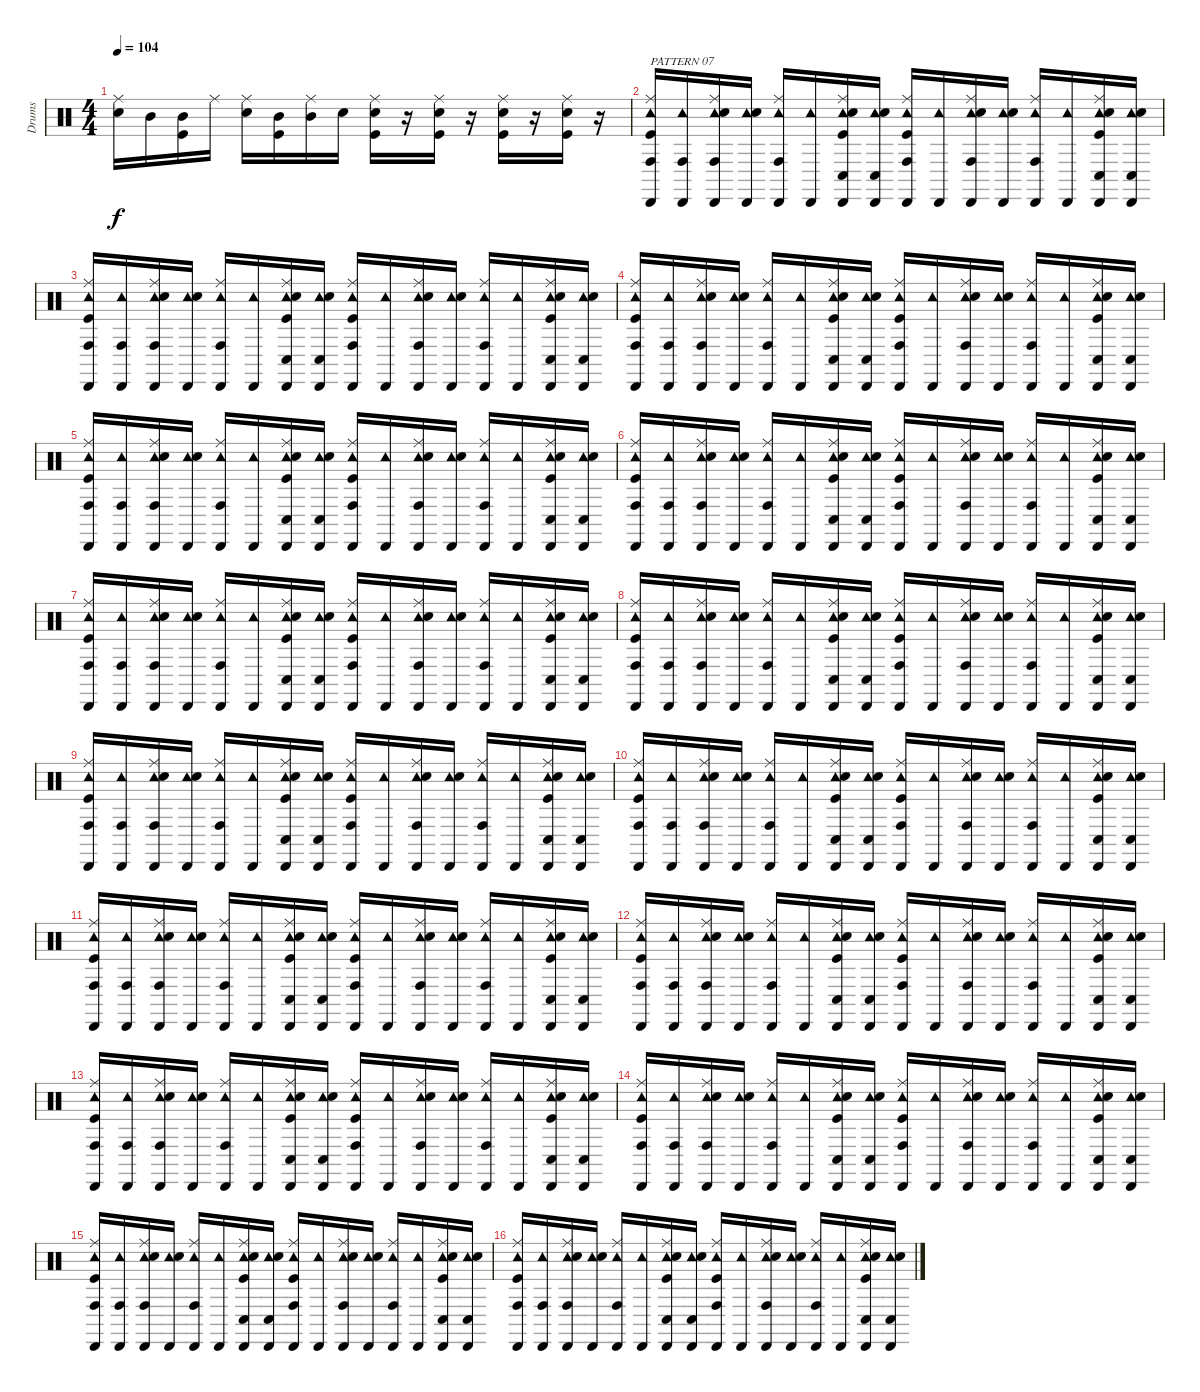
\track ("Drums" "Drums") {instrument percussion}
\staff {score}
\articulation defaults
\ts (4 4)
\tempo 104
\clef neutral
\ks c
("Ride (middle)" "Electric Snare (hit)").16{dy f} "Mid Tom (hit)".16 ("Mid Tom (hit)" "Kick (hit)").16 "Ride (middle)".16 ("Ride (middle)" "Electric Snare (hit)").16 ("Mid Tom (hit)" "Kick (hit)").16 ("Ride (middle)" "Mid Tom (hit)").16 "Electric Snare (hit)".16 ("Ride (middle)" "Electric Snare (hit)" "Kick (hit)").16 r.16 ("Ride (middle)" "Electric Snare (hit)" "Kick (hit)").16 r.16 ("Ride (middle)" "Electric Snare (hit)" "Kick (hit)").16 r.16 ("Ride (middle)" "Electric Snare (hit)" "Kick (hit)").16 r.16 |
("Cabasa (hit)" "Conga high (hit)" "Tambourine (hit)" "Ride (middle)" "Kick (hit)").16{txt "PATTERN 07"} ("Cabasa (hit)" "Conga high (hit)" "Tambourine (hit)").16 ("Cabasa (hit)" "Conga high (hit)" "Tambourine (hit)" "Ride (middle)" "Electric Snare (hit)").16 ("Cabasa (hit)" "Tambourine (hit)" "Electric Snare (hit)").16 ("Cabasa (hit)" "Conga high (hit)" "Tambourine (hit)" "Ride (middle)").16 ("Cabasa (hit)" "Tambourine (hit)").16 ("Cabasa (hit)" "Conga low (hit)" "Tambourine (hit)" "Ride (middle)" "Electric Snare (hit)" "Kick (hit)").16 ("Cabasa (hit)" "Conga low (hit)" "Tambourine (hit)" "Electric Snare (hit)").16 ("Cabasa (hit)" "Conga high (hit)" "Tambourine (hit)" "Ride (middle)" "Kick (hit)").16 ("Cabasa (hit)" "Tambourine (hit)").16 ("Cabasa (hit)" "Conga high (hit)" "Tambourine (hit)" "Ride (middle)" "Electric Snare (hit)").16 ("Cabasa (hit)" "Tambourine (hit)" "Electric Snare (hit)").16 ("Cabasa (hit)" "Conga high (hit)" "Tambourine (hit)" "Ride (middle)").16 ("Cabasa (hit)" "Tambourine (hit)").16 ("Cabasa (hit)" "Conga low (hit)" "Tambourine (hit)" "Ride (middle)" "Electric Snare (hit)" "Kick (hit)").16 ("Cabasa (hit)" "Conga low (hit)" "Tambourine (hit)" "Electric Snare (hit)").16 |
("Cabasa (hit)" "Conga high (hit)" "Tambourine (hit)" "Ride (middle)" "Kick (hit)").16 ("Cabasa (hit)" "Conga high (hit)" "Tambourine (hit)").16 ("Cabasa (hit)" "Conga high (hit)" "Tambourine (hit)" "Ride (middle)" "Electric Snare (hit)").16 ("Cabasa (hit)" "Tambourine (hit)" "Electric Snare (hit)").16 ("Cabasa (hit)" "Conga high (hit)" "Tambourine (hit)" "Ride (middle)").16 ("Cabasa (hit)" "Tambourine (hit)").16 ("Cabasa (hit)" "Conga low (hit)" "Tambourine (hit)" "Ride (middle)" "Electric Snare (hit)" "Kick (hit)").16 ("Cabasa (hit)" "Conga low (hit)" "Tambourine (hit)" "Electric Snare (hit)").16 ("Cabasa (hit)" "Conga high (hit)" "Tambourine (hit)" "Ride (middle)" "Kick (hit)").16 ("Cabasa (hit)" "Tambourine (hit)").16 ("Cabasa (hit)" "Conga high (hit)" "Tambourine (hit)" "Ride (middle)" "Electric Snare (hit)").16 ("Cabasa (hit)" "Tambourine (hit)" "Electric Snare (hit)").16 ("Cabasa (hit)" "Conga high (hit)" "Tambourine (hit)" "Ride (middle)").16 ("Cabasa (hit)" "Tambourine (hit)").16 ("Cabasa (hit)" "Conga low (hit)" "Tambourine (hit)" "Ride (middle)" "Electric Snare (hit)" "Kick (hit)").16 ("Cabasa (hit)" "Conga low (hit)" "Tambourine (hit)" "Electric Snare (hit)").16 |
("Cabasa (hit)" "Conga high (hit)" "Tambourine (hit)" "Ride (middle)" "Kick (hit)").16 ("Cabasa (hit)" "Conga high (hit)" "Tambourine (hit)").16 ("Cabasa (hit)" "Conga high (hit)" "Tambourine (hit)" "Ride (middle)" "Electric Snare (hit)").16 ("Cabasa (hit)" "Tambourine (hit)" "Electric Snare (hit)").16 ("Cabasa (hit)" "Conga high (hit)" "Tambourine (hit)" "Ride (middle)").16 ("Cabasa (hit)" "Tambourine (hit)").16 ("Cabasa (hit)" "Conga low (hit)" "Tambourine (hit)" "Ride (middle)" "Electric Snare (hit)" "Kick (hit)").16 ("Cabasa (hit)" "Conga low (hit)" "Tambourine (hit)" "Electric Snare (hit)").16 ("Cabasa (hit)" "Conga high (hit)" "Tambourine (hit)" "Ride (middle)" "Kick (hit)").16 ("Cabasa (hit)" "Tambourine (hit)").16 ("Cabasa (hit)" "Conga high (hit)" "Tambourine (hit)" "Ride (middle)" "Electric Snare (hit)").16 ("Cabasa (hit)" "Tambourine (hit)" "Electric Snare (hit)").16 ("Cabasa (hit)" "Conga high (hit)" "Tambourine (hit)" "Ride (middle)").16 ("Cabasa (hit)" "Tambourine (hit)").16 ("Cabasa (hit)" "Conga low (hit)" "Tambourine (hit)" "Ride (middle)" "Electric Snare (hit)" "Kick (hit)").16 ("Cabasa (hit)" "Conga low (hit)" "Tambourine (hit)" "Electric Snare (hit)").16 |
("Cabasa (hit)" "Conga high (hit)" "Tambourine (hit)" "Ride (middle)" "Kick (hit)").16 ("Cabasa (hit)" "Conga high (hit)" "Tambourine (hit)").16 ("Cabasa (hit)" "Conga high (hit)" "Tambourine (hit)" "Ride (middle)" "Electric Snare (hit)").16 ("Cabasa (hit)" "Tambourine (hit)" "Electric Snare (hit)").16 ("Cabasa (hit)" "Conga high (hit)" "Tambourine (hit)" "Ride (middle)").16 ("Cabasa (hit)" "Tambourine (hit)").16 ("Cabasa (hit)" "Conga low (hit)" "Tambourine (hit)" "Ride (middle)" "Electric Snare (hit)" "Kick (hit)").16 ("Cabasa (hit)" "Conga low (hit)" "Tambourine (hit)" "Electric Snare (hit)").16 ("Cabasa (hit)" "Conga high (hit)" "Tambourine (hit)" "Ride (middle)" "Kick (hit)").16 ("Cabasa (hit)" "Tambourine (hit)").16 ("Cabasa (hit)" "Conga high (hit)" "Tambourine (hit)" "Ride (middle)" "Electric Snare (hit)").16 ("Cabasa (hit)" "Tambourine (hit)" "Electric Snare (hit)").16 ("Cabasa (hit)" "Conga high (hit)" "Tambourine (hit)" "Ride (middle)").16 ("Cabasa (hit)" "Tambourine (hit)").16 ("Cabasa (hit)" "Conga low (hit)" "Tambourine (hit)" "Ride (middle)" "Electric Snare (hit)" "Kick (hit)").16 ("Cabasa (hit)" "Conga low (hit)" "Tambourine (hit)" "Electric Snare (hit)").16 |
("Cabasa (hit)" "Conga high (hit)" "Tambourine (hit)" "Ride (middle)" "Kick (hit)").16 ("Cabasa (hit)" "Conga high (hit)" "Tambourine (hit)").16 ("Cabasa (hit)" "Conga high (hit)" "Tambourine (hit)" "Ride (middle)" "Electric Snare (hit)").16 ("Cabasa (hit)" "Tambourine (hit)" "Electric Snare (hit)").16 ("Cabasa (hit)" "Conga high (hit)" "Tambourine (hit)" "Ride (middle)").16 ("Cabasa (hit)" "Tambourine (hit)").16 ("Cabasa (hit)" "Conga low (hit)" "Tambourine (hit)" "Ride (middle)" "Electric Snare (hit)" "Kick (hit)").16 ("Cabasa (hit)" "Conga low (hit)" "Tambourine (hit)" "Electric Snare (hit)").16 ("Cabasa (hit)" "Conga high (hit)" "Tambourine (hit)" "Ride (middle)" "Kick (hit)").16 ("Cabasa (hit)" "Tambourine (hit)").16 ("Cabasa (hit)" "Conga high (hit)" "Tambourine (hit)" "Ride (middle)" "Electric Snare (hit)").16 ("Cabasa (hit)" "Tambourine (hit)" "Electric Snare (hit)").16 ("Cabasa (hit)" "Conga high (hit)" "Tambourine (hit)" "Ride (middle)").16 ("Cabasa (hit)" "Tambourine (hit)").16 ("Cabasa (hit)" "Conga low (hit)" "Tambourine (hit)" "Ride (middle)" "Electric Snare (hit)" "Kick (hit)").16 ("Cabasa (hit)" "Conga low (hit)" "Tambourine (hit)" "Electric Snare (hit)").16 |
("Cabasa (hit)" "Conga high (hit)" "Tambourine (hit)" "Ride (middle)" "Kick (hit)").16 ("Cabasa (hit)" "Conga high (hit)" "Tambourine (hit)").16 ("Cabasa (hit)" "Conga high (hit)" "Tambourine (hit)" "Ride (middle)" "Electric Snare (hit)").16 ("Cabasa (hit)" "Tambourine (hit)" "Electric Snare (hit)").16 ("Cabasa (hit)" "Conga high (hit)" "Tambourine (hit)" "Ride (middle)").16 ("Cabasa (hit)" "Tambourine (hit)").16 ("Cabasa (hit)" "Conga low (hit)" "Tambourine (hit)" "Ride (middle)" "Electric Snare (hit)" "Kick (hit)").16 ("Cabasa (hit)" "Conga low (hit)" "Tambourine (hit)" "Electric Snare (hit)").16 ("Cabasa (hit)" "Conga high (hit)" "Tambourine (hit)" "Ride (middle)" "Kick (hit)").16 ("Cabasa (hit)" "Tambourine (hit)").16 ("Cabasa (hit)" "Conga high (hit)" "Tambourine (hit)" "Ride (middle)" "Electric Snare (hit)").16 ("Cabasa (hit)" "Tambourine (hit)" "Electric Snare (hit)").16 ("Cabasa (hit)" "Conga high (hit)" "Tambourine (hit)" "Ride (middle)").16 ("Cabasa (hit)" "Tambourine (hit)").16 ("Cabasa (hit)" "Conga low (hit)" "Tambourine (hit)" "Ride (middle)" "Electric Snare (hit)" "Kick (hit)").16 ("Cabasa (hit)" "Conga low (hit)" "Tambourine (hit)" "Electric Snare (hit)").16 |
("Cabasa (hit)" "Conga high (hit)" "Tambourine (hit)" "Ride (middle)" "Kick (hit)").16 ("Cabasa (hit)" "Conga high (hit)" "Tambourine (hit)").16 ("Cabasa (hit)" "Conga high (hit)" "Tambourine (hit)" "Ride (middle)" "Electric Snare (hit)").16 ("Cabasa (hit)" "Tambourine (hit)" "Electric Snare (hit)").16 ("Cabasa (hit)" "Conga high (hit)" "Tambourine (hit)" "Ride (middle)").16 ("Cabasa (hit)" "Tambourine (hit)").16 ("Cabasa (hit)" "Conga low (hit)" "Tambourine (hit)" "Ride (middle)" "Electric Snare (hit)" "Kick (hit)").16 ("Cabasa (hit)" "Conga low (hit)" "Tambourine (hit)" "Electric Snare (hit)").16 ("Cabasa (hit)" "Conga high (hit)" "Tambourine (hit)" "Ride (middle)" "Kick (hit)").16 ("Cabasa (hit)" "Tambourine (hit)").16 ("Cabasa (hit)" "Conga high (hit)" "Tambourine (hit)" "Ride (middle)" "Electric Snare (hit)").16 ("Cabasa (hit)" "Tambourine (hit)" "Electric Snare (hit)").16 ("Cabasa (hit)" "Conga high (hit)" "Tambourine (hit)" "Ride (middle)").16 ("Cabasa (hit)" "Tambourine (hit)").16 ("Cabasa (hit)" "Conga low (hit)" "Tambourine (hit)" "Ride (middle)" "Electric Snare (hit)" "Kick (hit)").16 ("Cabasa (hit)" "Conga low (hit)" "Tambourine (hit)" "Electric Snare (hit)").16 |
("Cabasa (hit)" "Conga high (hit)" "Tambourine (hit)" "Ride (middle)" "Kick (hit)").16 ("Cabasa (hit)" "Conga high (hit)" "Tambourine (hit)").16 ("Cabasa (hit)" "Conga high (hit)" "Tambourine (hit)" "Ride (middle)" "Electric Snare (hit)").16 ("Cabasa (hit)" "Tambourine (hit)" "Electric Snare (hit)").16 ("Cabasa (hit)" "Conga high (hit)" "Tambourine (hit)" "Ride (middle)").16 ("Cabasa (hit)" "Tambourine (hit)").16 ("Cabasa (hit)" "Conga low (hit)" "Tambourine (hit)" "Ride (middle)" "Electric Snare (hit)" "Kick (hit)").16 ("Cabasa (hit)" "Conga low (hit)" "Tambourine (hit)" "Electric Snare (hit)").16 ("Cabasa (hit)" "Conga high (hit)" "Tambourine (hit)" "Ride (middle)" "Kick (hit)").16 ("Cabasa (hit)" "Tambourine (hit)").16 ("Cabasa (hit)" "Conga high (hit)" "Tambourine (hit)" "Ride (middle)" "Electric Snare (hit)").16 ("Cabasa (hit)" "Tambourine (hit)" "Electric Snare (hit)").16 ("Cabasa (hit)" "Conga high (hit)" "Tambourine (hit)" "Ride (middle)").16 ("Cabasa (hit)" "Tambourine (hit)").16 ("Cabasa (hit)" "Conga low (hit)" "Tambourine (hit)" "Ride (middle)" "Electric Snare (hit)" "Kick (hit)").16 ("Cabasa (hit)" "Conga low (hit)" "Tambourine (hit)" "Electric Snare (hit)").16 |
("Cabasa (hit)" "Conga high (hit)" "Tambourine (hit)" "Ride (middle)" "Kick (hit)").16 ("Cabasa (hit)" "Conga high (hit)" "Tambourine (hit)").16 ("Cabasa (hit)" "Conga high (hit)" "Tambourine (hit)" "Ride (middle)" "Electric Snare (hit)").16 ("Cabasa (hit)" "Tambourine (hit)" "Electric Snare (hit)").16 ("Cabasa (hit)" "Conga high (hit)" "Tambourine (hit)" "Ride (middle)").16 ("Cabasa (hit)" "Tambourine (hit)").16 ("Cabasa (hit)" "Conga low (hit)" "Tambourine (hit)" "Ride (middle)" "Electric Snare (hit)" "Kick (hit)").16 ("Cabasa (hit)" "Conga low (hit)" "Tambourine (hit)" "Electric Snare (hit)").16 ("Cabasa (hit)" "Conga high (hit)" "Tambourine (hit)" "Ride (middle)" "Kick (hit)").16 ("Cabasa (hit)" "Tambourine (hit)").16 ("Cabasa (hit)" "Conga high (hit)" "Tambourine (hit)" "Ride (middle)" "Electric Snare (hit)").16 ("Cabasa (hit)" "Tambourine (hit)" "Electric Snare (hit)").16 ("Cabasa (hit)" "Conga high (hit)" "Tambourine (hit)" "Ride (middle)").16 ("Cabasa (hit)" "Tambourine (hit)").16 ("Cabasa (hit)" "Conga low (hit)" "Tambourine (hit)" "Ride (middle)" "Electric Snare (hit)" "Kick (hit)").16 ("Cabasa (hit)" "Conga low (hit)" "Tambourine (hit)" "Electric Snare (hit)").16 |
("Cabasa (hit)" "Conga high (hit)" "Tambourine (hit)" "Ride (middle)" "Kick (hit)").16 ("Cabasa (hit)" "Conga high (hit)" "Tambourine (hit)").16 ("Cabasa (hit)" "Conga high (hit)" "Tambourine (hit)" "Ride (middle)" "Electric Snare (hit)").16 ("Cabasa (hit)" "Tambourine (hit)" "Electric Snare (hit)").16 ("Cabasa (hit)" "Conga high (hit)" "Tambourine (hit)" "Ride (middle)").16 ("Cabasa (hit)" "Tambourine (hit)").16 ("Cabasa (hit)" "Conga low (hit)" "Tambourine (hit)" "Ride (middle)" "Electric Snare (hit)" "Kick (hit)").16 ("Cabasa (hit)" "Conga low (hit)" "Tambourine (hit)" "Electric Snare (hit)").16 ("Cabasa (hit)" "Conga high (hit)" "Tambourine (hit)" "Ride (middle)" "Kick (hit)").16 ("Cabasa (hit)" "Tambourine (hit)").16 ("Cabasa (hit)" "Conga high (hit)" "Tambourine (hit)" "Ride (middle)" "Electric Snare (hit)").16 ("Cabasa (hit)" "Tambourine (hit)" "Electric Snare (hit)").16 ("Cabasa (hit)" "Conga high (hit)" "Tambourine (hit)" "Ride (middle)").16 ("Cabasa (hit)" "Tambourine (hit)").16 ("Cabasa (hit)" "Conga low (hit)" "Tambourine (hit)" "Ride (middle)" "Electric Snare (hit)" "Kick (hit)").16 ("Cabasa (hit)" "Conga low (hit)" "Tambourine (hit)" "Electric Snare (hit)").16 |
("Cabasa (hit)" "Conga high (hit)" "Tambourine (hit)" "Ride (middle)" "Kick (hit)").16 ("Cabasa (hit)" "Conga high (hit)" "Tambourine (hit)").16 ("Cabasa (hit)" "Conga high (hit)" "Tambourine (hit)" "Ride (middle)" "Electric Snare (hit)").16 ("Cabasa (hit)" "Tambourine (hit)" "Electric Snare (hit)").16 ("Cabasa (hit)" "Conga high (hit)" "Tambourine (hit)" "Ride (middle)").16 ("Cabasa (hit)" "Tambourine (hit)").16 ("Cabasa (hit)" "Conga low (hit)" "Tambourine (hit)" "Ride (middle)" "Electric Snare (hit)" "Kick (hit)").16 ("Cabasa (hit)" "Conga low (hit)" "Tambourine (hit)" "Electric Snare (hit)").16 ("Cabasa (hit)" "Conga high (hit)" "Tambourine (hit)" "Ride (middle)" "Kick (hit)").16 ("Cabasa (hit)" "Tambourine (hit)").16 ("Cabasa (hit)" "Conga high (hit)" "Tambourine (hit)" "Ride (middle)" "Electric Snare (hit)").16 ("Cabasa (hit)" "Tambourine (hit)" "Electric Snare (hit)").16 ("Cabasa (hit)" "Conga high (hit)" "Tambourine (hit)" "Ride (middle)").16 ("Cabasa (hit)" "Tambourine (hit)").16 ("Cabasa (hit)" "Conga low (hit)" "Tambourine (hit)" "Ride (middle)" "Electric Snare (hit)" "Kick (hit)").16 ("Cabasa (hit)" "Conga low (hit)" "Tambourine (hit)" "Electric Snare (hit)").16 |
("Cabasa (hit)" "Conga high (hit)" "Tambourine (hit)" "Ride (middle)" "Kick (hit)").16 ("Cabasa (hit)" "Conga high (hit)" "Tambourine (hit)").16 ("Cabasa (hit)" "Conga high (hit)" "Tambourine (hit)" "Ride (middle)" "Electric Snare (hit)").16 ("Cabasa (hit)" "Tambourine (hit)" "Electric Snare (hit)").16 ("Cabasa (hit)" "Conga high (hit)" "Tambourine (hit)" "Ride (middle)").16 ("Cabasa (hit)" "Tambourine (hit)").16 ("Cabasa (hit)" "Conga low (hit)" "Tambourine (hit)" "Ride (middle)" "Electric Snare (hit)" "Kick (hit)").16 ("Cabasa (hit)" "Conga low (hit)" "Tambourine (hit)" "Electric Snare (hit)").16 ("Cabasa (hit)" "Conga high (hit)" "Tambourine (hit)" "Ride (middle)" "Kick (hit)").16 ("Cabasa (hit)" "Tambourine (hit)").16 ("Cabasa (hit)" "Conga high (hit)" "Tambourine (hit)" "Ride (middle)" "Electric Snare (hit)").16 ("Cabasa (hit)" "Tambourine (hit)" "Electric Snare (hit)").16 ("Cabasa (hit)" "Conga high (hit)" "Tambourine (hit)" "Ride (middle)").16 ("Cabasa (hit)" "Tambourine (hit)").16 ("Cabasa (hit)" "Conga low (hit)" "Tambourine (hit)" "Ride (middle)" "Electric Snare (hit)" "Kick (hit)").16 ("Cabasa (hit)" "Conga low (hit)" "Tambourine (hit)" "Electric Snare (hit)").16 |
("Cabasa (hit)" "Conga high (hit)" "Tambourine (hit)" "Ride (middle)" "Kick (hit)").16 ("Cabasa (hit)" "Conga high (hit)" "Tambourine (hit)").16 ("Cabasa (hit)" "Conga high (hit)" "Tambourine (hit)" "Ride (middle)" "Electric Snare (hit)").16 ("Cabasa (hit)" "Tambourine (hit)" "Electric Snare (hit)").16 ("Cabasa (hit)" "Conga high (hit)" "Tambourine (hit)" "Ride (middle)").16 ("Cabasa (hit)" "Tambourine (hit)").16 ("Cabasa (hit)" "Conga low (hit)" "Tambourine (hit)" "Ride (middle)" "Electric Snare (hit)" "Kick (hit)").16 ("Cabasa (hit)" "Conga low (hit)" "Tambourine (hit)" "Electric Snare (hit)").16 ("Cabasa (hit)" "Conga high (hit)" "Tambourine (hit)" "Ride (middle)" "Kick (hit)").16 ("Cabasa (hit)" "Tambourine (hit)").16 ("Cabasa (hit)" "Conga high (hit)" "Tambourine (hit)" "Ride (middle)" "Electric Snare (hit)").16 ("Cabasa (hit)" "Tambourine (hit)" "Electric Snare (hit)").16 ("Cabasa (hit)" "Conga high (hit)" "Tambourine (hit)" "Ride (middle)").16 ("Cabasa (hit)" "Tambourine (hit)").16 ("Cabasa (hit)" "Conga low (hit)" "Tambourine (hit)" "Ride (middle)" "Electric Snare (hit)" "Kick (hit)").16 ("Cabasa (hit)" "Conga low (hit)" "Tambourine (hit)" "Electric Snare (hit)").16 |
("Cabasa (hit)" "Conga high (hit)" "Tambourine (hit)" "Ride (middle)" "Kick (hit)").16 ("Cabasa (hit)" "Conga high (hit)" "Tambourine (hit)").16 ("Cabasa (hit)" "Conga high (hit)" "Tambourine (hit)" "Ride (middle)" "Electric Snare (hit)").16 ("Cabasa (hit)" "Tambourine (hit)" "Electric Snare (hit)").16 ("Cabasa (hit)" "Conga high (hit)" "Tambourine (hit)" "Ride (middle)").16 ("Cabasa (hit)" "Tambourine (hit)").16 ("Cabasa (hit)" "Conga low (hit)" "Tambourine (hit)" "Ride (middle)" "Electric Snare (hit)" "Kick (hit)").16 ("Cabasa (hit)" "Conga low (hit)" "Tambourine (hit)" "Electric Snare (hit)").16 ("Cabasa (hit)" "Conga high (hit)" "Tambourine (hit)" "Ride (middle)" "Kick (hit)").16 ("Cabasa (hit)" "Tambourine (hit)").16 ("Cabasa (hit)" "Conga high (hit)" "Tambourine (hit)" "Ride (middle)" "Electric Snare (hit)").16 ("Cabasa (hit)" "Tambourine (hit)" "Electric Snare (hit)").16 ("Cabasa (hit)" "Conga high (hit)" "Tambourine (hit)" "Ride (middle)").16 ("Cabasa (hit)" "Tambourine (hit)").16 ("Cabasa (hit)" "Conga low (hit)" "Tambourine (hit)" "Ride (middle)" "Electric Snare (hit)" "Kick (hit)").16 ("Cabasa (hit)" "Conga low (hit)" "Tambourine (hit)" "Electric Snare (hit)").16 |
("Cabasa (hit)" "Conga high (hit)" "Tambourine (hit)" "Ride (middle)" "Kick (hit)").16 ("Cabasa (hit)" "Conga high (hit)" "Tambourine (hit)").16 ("Cabasa (hit)" "Conga high (hit)" "Tambourine (hit)" "Ride (middle)" "Electric Snare (hit)").16 ("Cabasa (hit)" "Tambourine (hit)" "Electric Snare (hit)").16 ("Cabasa (hit)" "Conga high (hit)" "Tambourine (hit)" "Ride (middle)").16 ("Cabasa (hit)" "Tambourine (hit)").16 ("Cabasa (hit)" "Conga low (hit)" "Tambourine (hit)" "Ride (middle)" "Electric Snare (hit)" "Kick (hit)").16 ("Cabasa (hit)" "Conga low (hit)" "Tambourine (hit)" "Electric Snare (hit)").16 ("Cabasa (hit)" "Conga high (hit)" "Tambourine (hit)" "Ride (middle)" "Kick (hit)").16 ("Cabasa (hit)" "Tambourine (hit)").16 ("Cabasa (hit)" "Conga high (hit)" "Tambourine (hit)" "Ride (middle)" "Electric Snare (hit)").16 ("Cabasa (hit)" "Tambourine (hit)" "Electric Snare (hit)").16 ("Cabasa (hit)" "Conga high (hit)" "Tambourine (hit)" "Ride (middle)").16 ("Cabasa (hit)" "Tambourine (hit)").16 ("Cabasa (hit)" "Conga low (hit)" "Tambourine (hit)" "Ride (middle)" "Electric Snare (hit)" "Kick (hit)").16 ("Cabasa (hit)" "Conga low (hit)" "Tambourine (hit)" "Electric Snare (hit)").16
